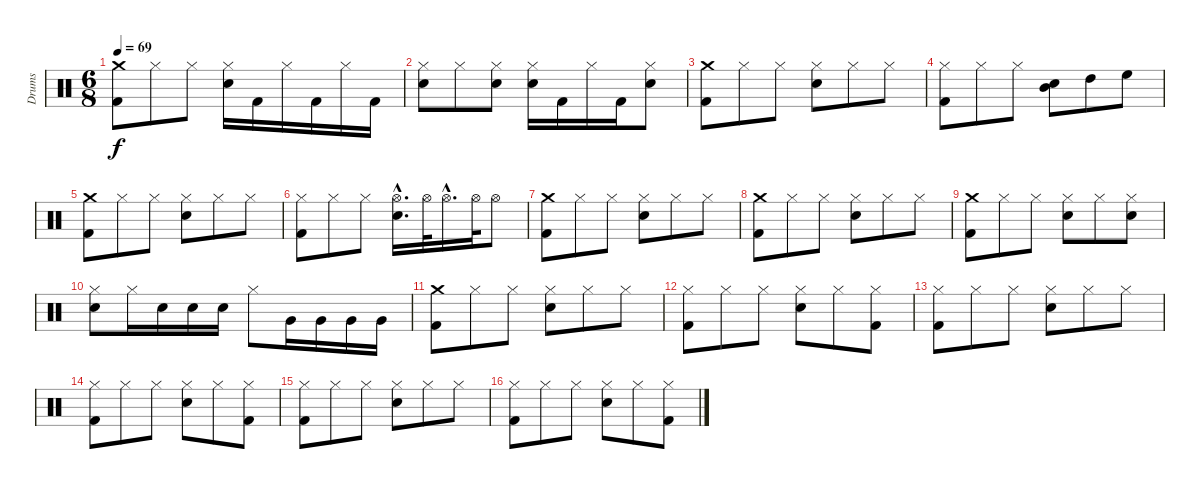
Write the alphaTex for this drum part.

\track ("Drums" "Drums") {instrument percussion}
\staff {score}
\articulation defaults
\ts (6 8)
\tempo 69
\clef neutral
\ks c
("Kick (hit) 2" "Crash medium (hit)").8{dy f} "Hi-Hat (closed)".8 "Hi-Hat (closed)".8 ("Snare (hit) 2" "Hi-Hat (closed)").16 "Kick (hit) 2".16 "Hi-Hat (closed)".16 "Kick (hit) 2".16 "Hi-Hat (closed)".16 "Kick (hit) 2".16 |
("Snare (hit) 2" "Hi-Hat (closed)").8 "Hi-Hat (closed)".8 ("Snare (hit) 2" "Hi-Hat (closed)").8 ("Snare (hit) 2" "Hi-Hat (closed)").16 "Kick (hit) 2".16 "Hi-Hat (closed)".16 "Kick (hit) 2".16 ("Snare (hit) 2" "Hi-Hat (closed)").8 |
("Kick (hit) 2" "Crash medium (hit)").8 "Hi-Hat (closed)".8 "Hi-Hat (closed)".8 ("Snare (hit) 2" "Hi-Hat (closed)").8 "Hi-Hat (closed)".8 "Hi-Hat (closed)".8 |
("Kick (hit) 2" "Hi-Hat (closed)").8 "Hi-Hat (closed)".8 "Hi-Hat (closed)".8 ("Snare (hit) 2" "Mid Tom (hit)").8 "High Tom (hit)".8 "High Floor Tom (hit)".8 |
("Kick (hit) 2" "Crash medium (hit)").8 "Hi-Hat (closed)".8 "Hi-Hat (closed)".8 ("Snare (hit) 2" "Hi-Hat (closed)").8 "Hi-Hat (closed)".8 "Hi-Hat (closed)".8 |
("Kick (hit) 2" "Hi-Hat (closed)").8 "Hi-Hat (closed)".8 "Hi-Hat (closed)".8 ("Snare (hit) 2"{hac} "Hi-Hat (open)"{hac}).16{d} "Hi-Hat (open)".32 "Hi-Hat (open)"{hac}.16{d} "Hi-Hat (open)".32 "Hi-Hat (open)".8 |
("Kick (hit) 2" "Crash medium (hit)").8 "Hi-Hat (closed)".8 "Hi-Hat (closed)".8 ("Snare (hit) 2" "Hi-Hat (closed)").8 "Hi-Hat (closed)".8 "Hi-Hat (closed)".8 |
("Kick (hit) 2" "Crash medium (hit)").8 "Hi-Hat (closed)".8 "Hi-Hat (closed)".8 ("Snare (hit) 2" "Hi-Hat (closed)").8 "Hi-Hat (closed)".8 "Hi-Hat (closed)".8 |
("Kick (hit) 2" "Crash medium (hit)").8 "Hi-Hat (closed)".8 "Hi-Hat (closed)".8 ("Snare (hit) 2" "Hi-Hat (closed)").8 "Hi-Hat (closed)".8 ("Snare (hit) 2" "Hi-Hat (closed)").8 |
("Snare (hit) 2" "Hi-Hat (closed)").8 "Hi-Hat (closed)".16 "Snare (hit) 2".16 "Snare (hit) 2".16 "Snare (hit) 2".16 "Hi-Hat (closed)".8 "Very Low Tom (hit)".16 "Very Low Tom (hit)".16 "Very Low Tom (hit)".16 "Very Low Tom (hit)".16 |
("Kick (hit) 2" "Crash medium (hit)").8 "Hi-Hat (closed)".8 "Hi-Hat (closed)".8 ("Snare (hit) 2" "Hi-Hat (closed)").8 "Hi-Hat (closed)".8 "Hi-Hat (closed)".8 |
("Kick (hit) 2" "Hi-Hat (closed)").8 "Hi-Hat (closed)".8 "Hi-Hat (closed)".8 ("Snare (hit) 2" "Hi-Hat (closed)").8 "Hi-Hat (closed)".8 ("Kick (hit) 2" "Hi-Hat (closed)").8 |
("Kick (hit) 2" "Hi-Hat (closed)").8 "Hi-Hat (closed)".8 "Hi-Hat (closed)".8 ("Snare (hit) 2" "Hi-Hat (closed)").8 "Hi-Hat (closed)".8 "Hi-Hat (closed)".8 |
("Kick (hit) 2" "Hi-Hat (closed)").8 "Hi-Hat (closed)".8 "Hi-Hat (closed)".8 ("Snare (hit) 2" "Hi-Hat (closed)").8 "Hi-Hat (closed)".8 ("Kick (hit) 2" "Hi-Hat (closed)").8 |
("Kick (hit) 2" "Hi-Hat (closed)").8 "Hi-Hat (closed)".8 "Hi-Hat (closed)".8 ("Snare (hit) 2" "Hi-Hat (closed)").8 "Hi-Hat (closed)".8 "Hi-Hat (closed)".8 |
("Kick (hit) 2" "Hi-Hat (closed)").8 "Hi-Hat (closed)".8 "Hi-Hat (closed)".8 ("Snare (hit) 2" "Hi-Hat (closed)").8 "Hi-Hat (closed)".8 ("Kick (hit) 2" "Hi-Hat (closed)").8
